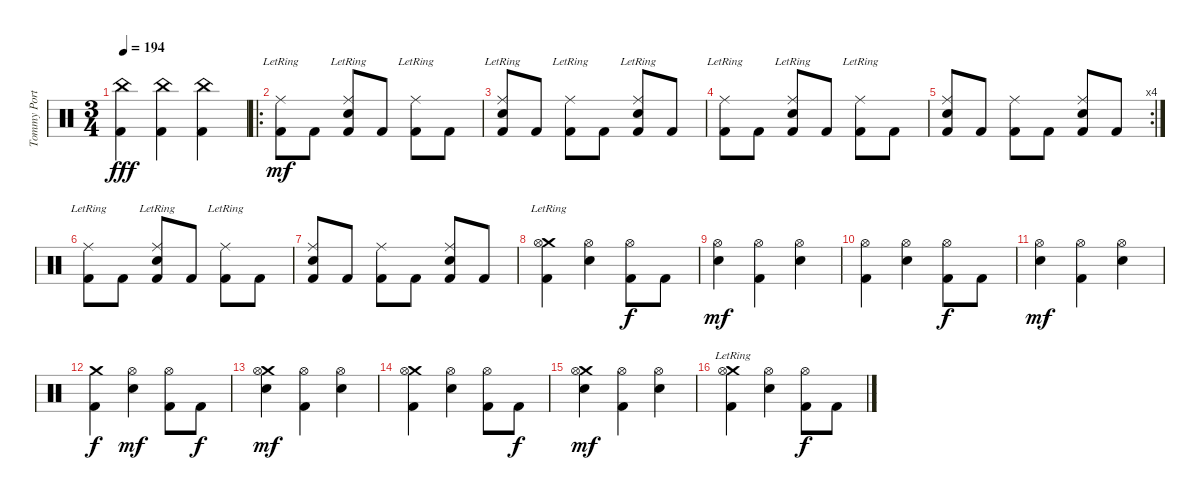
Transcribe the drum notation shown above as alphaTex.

\track ("Tommy Portino" "Tommy Port") {instrument percussion}
\staff {score}
\articulation defaults
\ts (3 4)
\tempo 194
\clef neutral
\ks c
("China (hit)" "Kick (hit) 2").4{dy fff} ("China (hit)" "Kick (hit) 2").4 ("China (hit)" "Kick (hit) 2").4 |
\ro
("Ride (middle)"{lr} "Kick (hit) 2").8{dy mf} "Kick (hit) 2".8 ("Ride (middle)"{lr} "Snare (hit) 2" "Kick (hit) 2").8 "Kick (hit) 2".8 ("Ride (middle)"{lr} "Kick (hit) 2").8 "Kick (hit) 2".8 |
("Ride (middle)"{lr} "Snare (hit) 2" "Kick (hit) 2").8 "Kick (hit) 2".8 ("Ride (middle)"{lr} "Kick (hit) 2").8 "Kick (hit) 2".8 ("Ride (middle)"{lr} "Snare (hit) 2" "Kick (hit) 2").8 "Kick (hit) 2".8 |
("Ride (middle)"{lr} "Kick (hit) 2").8 "Kick (hit) 2".8 ("Ride (middle)"{lr} "Snare (hit) 2" "Kick (hit) 2").8 "Kick (hit) 2".8 ("Ride (middle)"{lr} "Kick (hit) 2").8 "Kick (hit) 2".8 |
\rc 4
("Ride (middle)" "Snare (hit) 2" "Kick (hit) 2").8 "Kick (hit) 2".8 ("Ride (middle)" "Kick (hit) 2").8 "Kick (hit) 2".8 ("Ride (middle)" "Snare (hit) 2" "Kick (hit) 2").8 "Kick (hit) 2".8 |
("Ride (middle)"{lr} "Kick (hit) 2").8 "Kick (hit) 2".8 ("Ride (middle)"{lr} "Snare (hit) 2" "Kick (hit) 2").8 "Kick (hit) 2".8 ("Ride (middle)"{lr} "Kick (hit) 2").8 "Kick (hit) 2".8 |
("Ride (middle)" "Snare (hit) 2" "Kick (hit) 2").8 "Kick (hit) 2".8 ("Ride (middle)" "Kick (hit) 2").8 "Kick (hit) 2".8 ("Ride (middle)" "Snare (hit) 2" "Kick (hit) 2").8 "Kick (hit) 2".8 |
("Crash medium (hit)"{lr} "Hi-Hat (open)" "Kick (hit) 2").4 ("Hi-Hat (open)" "Snare (hit) 2").4 ("Hi-Hat (open)" "Kick (hit) 2").8{dy f} "Kick (hit) 2".8 |
("Hi-Hat (open)" "Snare (hit) 2").4{dy mf} ("Hi-Hat (open)" "Kick (hit) 2").4 ("Hi-Hat (open)" "Snare (hit) 2").4 |
("Hi-Hat (open)" "Kick (hit) 2").4 ("Hi-Hat (open)" "Snare (hit) 2").4 ("Hi-Hat (open)" "Kick (hit) 2").8{dy f} "Kick (hit) 2".8 |
("Hi-Hat (open)" "Snare (hit) 2").4{dy mf} ("Hi-Hat (open)" "Kick (hit) 2").4 ("Hi-Hat (open)" "Snare (hit) 2").4 |
("Crash medium (hit)" "Kick (hit) 2").4{dy f} ("Snare (hit) 2" "Hi-Hat (open)").4{dy mf} ("Hi-Hat (open)" "Kick (hit) 2").8 "Kick (hit) 2".8{dy f} |
("Crash medium (hit)" "Snare (hit) 2" "Hi-Hat (open)").4{dy mf} ("Hi-Hat (open)" "Kick (hit) 2").4 ("Snare (hit) 2" "Hi-Hat (open)").4 |
("Crash medium (hit)" "Hi-Hat (open)" "Kick (hit) 2").4 ("Snare (hit) 2" "Hi-Hat (open)").4 ("Hi-Hat (open)" "Kick (hit) 2").8 "Kick (hit) 2".8{dy f} |
("Crash medium (hit)" "Snare (hit) 2" "Hi-Hat (open)").4{dy mf} ("Hi-Hat (open)" "Kick (hit) 2").4 ("Snare (hit) 2" "Hi-Hat (open)").4 |
("Crash medium (hit)"{lr} "Hi-Hat (open)" "Kick (hit) 2").4 ("Hi-Hat (open)" "Snare (hit) 2").4 ("Hi-Hat (open)" "Kick (hit) 2").8{dy f} "Kick (hit) 2".8
